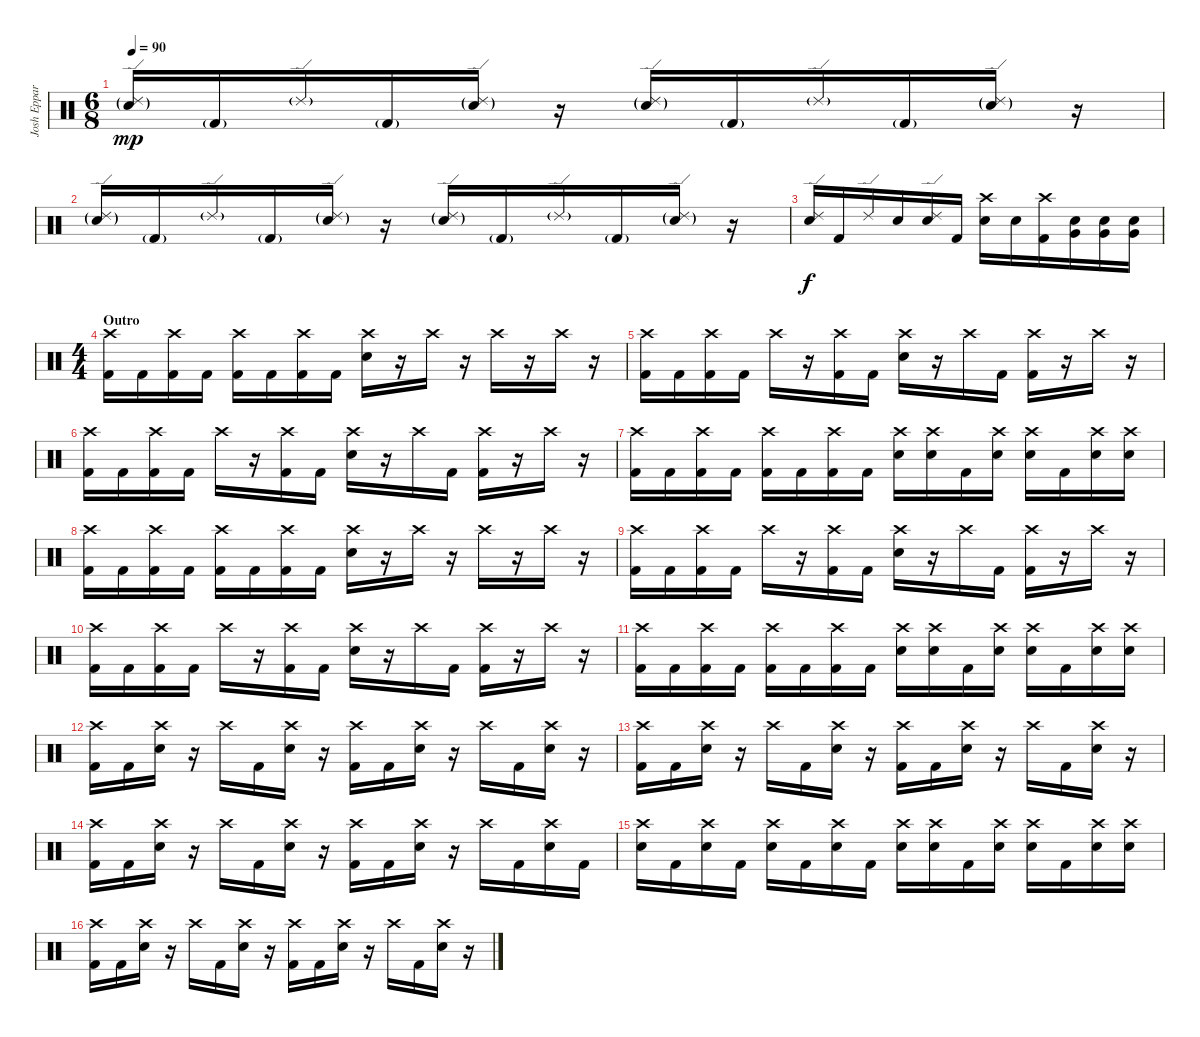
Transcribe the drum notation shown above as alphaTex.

\track ("Josh Eppard" "Josh Eppar") {instrument percussion}
\staff {score}
\articulation defaults
\ts (6 8)
\tempo 90
\clef neutral
\ks c
("Ride (edge) 2"{g} "Electric Snare (hit)"{g}).16{dy mp} "Kick (hit) 2"{g}.16 "Ride (edge) 2"{g}.16 "Kick (hit) 2"{g}.16 ("Ride (edge) 2"{g} "Electric Snare (hit)"{g}).16 r.16 ("Ride (edge) 2"{g} "Electric Snare (hit)"{g}).16 "Kick (hit) 2"{g}.16 "Ride (edge) 2"{g}.16 "Kick (hit) 2"{g}.16 ("Ride (edge) 2"{g} "Electric Snare (hit)"{g}).16 r.16 |
("Ride (edge) 2"{g} "Electric Snare (hit)"{g}).16 "Kick (hit) 2"{g}.16 "Ride (edge) 2"{g}.16 "Kick (hit) 2"{g}.16 ("Ride (edge) 2"{g} "Electric Snare (hit)"{g}).16 r.16 ("Ride (edge) 2"{g} "Electric Snare (hit)"{g}).16 "Kick (hit) 2"{g}.16 "Ride (edge) 2"{g}.16 "Kick (hit) 2"{g}.16 ("Ride (edge) 2"{g} "Electric Snare (hit)"{g}).16 r.16 |
("Ride (edge) 2" "Electric Snare (hit)").16{dy f} "Kick (hit) 2".16 "Ride (edge) 2".16 "Electric Snare (hit)".16 ("Ride (edge) 2" "Electric Snare (hit)").16 "Kick (hit) 2".16 ("Crash high (hit)" "Electric Snare (hit)").16 "Electric Snare (hit)".16 ("Crash high (hit)" "Kick (hit) 2").16 ("Very Low Tom (hit)" "Electric Snare (hit)").16 ("Very Low Tom (hit)" "Electric Snare (hit)").16 ("Very Low Tom (hit)" "Electric Snare (hit)").16 |
\ts (4 4)
\section ("" "Outro")
("Crash high (hit)" "Kick (hit) 2").16 "Kick (hit) 2".16 ("Crash high (hit)" "Kick (hit) 2").16 "Kick (hit) 2".16 ("Crash high (hit)" "Kick (hit) 2").16 "Kick (hit) 2".16 ("Crash high (hit)" "Kick (hit) 2").16 "Kick (hit) 2".16 ("Crash high (hit)" "Electric Snare (hit)").16 r.16 "Crash high (hit)".16 r.16 "Crash high (hit)".16 r.16 "Crash high (hit)".16 r.16 |
("Crash high (hit)" "Kick (hit) 2").16 "Kick (hit) 2".16 ("Crash high (hit)" "Kick (hit) 2").16 "Kick (hit) 2".16 "Crash high (hit)".16 r.16 ("Crash high (hit)" "Kick (hit) 2").16 "Kick (hit) 2".16 ("Crash high (hit)" "Electric Snare (hit)").16 r.16 "Crash high (hit)".16 "Kick (hit) 2".16 ("Crash high (hit)" "Kick (hit) 2").16 r.16 "Crash high (hit)".16 r.16 |
("Crash high (hit)" "Kick (hit) 2").16 "Kick (hit) 2".16 ("Crash high (hit)" "Kick (hit) 2").16 "Kick (hit) 2".16 "Crash high (hit)".16 r.16 ("Crash high (hit)" "Kick (hit) 2").16 "Kick (hit) 2".16 ("Crash high (hit)" "Electric Snare (hit)").16 r.16 "Crash high (hit)".16 "Kick (hit) 2".16 ("Crash high (hit)" "Kick (hit) 2").16 r.16 "Crash high (hit)".16 r.16 |
("Crash high (hit)" "Kick (hit) 2").16 "Kick (hit) 2".16 ("Crash high (hit)" "Kick (hit) 2").16 "Kick (hit) 2".16 ("Crash high (hit)" "Kick (hit) 2").16 "Kick (hit) 2".16 ("Crash high (hit)" "Kick (hit) 2").16 "Kick (hit) 2".16 ("Crash high (hit)" "Electric Snare (hit)").16 ("Crash high (hit)" "Electric Snare (hit)").16 "Kick (hit) 2".16 ("Crash high (hit)" "Electric Snare (hit)").16 ("Crash high (hit)" "Electric Snare (hit)").16 "Kick (hit) 2".16 ("Crash high (hit)" "Electric Snare (hit)").16 ("Crash high (hit)" "Electric Snare (hit)").16 |
("Crash high (hit)" "Kick (hit) 2").16 "Kick (hit) 2".16 ("Crash high (hit)" "Kick (hit) 2").16 "Kick (hit) 2".16 ("Crash high (hit)" "Kick (hit) 2").16 "Kick (hit) 2".16 ("Crash high (hit)" "Kick (hit) 2").16 "Kick (hit) 2".16 ("Crash high (hit)" "Electric Snare (hit)").16 r.16 "Crash high (hit)".16 r.16 "Crash high (hit)".16 r.16 "Crash high (hit)".16 r.16 |
("Crash high (hit)" "Kick (hit) 2").16 "Kick (hit) 2".16 ("Crash high (hit)" "Kick (hit) 2").16 "Kick (hit) 2".16 "Crash high (hit)".16 r.16 ("Crash high (hit)" "Kick (hit) 2").16 "Kick (hit) 2".16 ("Crash high (hit)" "Electric Snare (hit)").16 r.16 "Crash high (hit)".16 "Kick (hit) 2".16 ("Crash high (hit)" "Kick (hit) 2").16 r.16 "Crash high (hit)".16 r.16 |
("Crash high (hit)" "Kick (hit) 2").16 "Kick (hit) 2".16 ("Crash high (hit)" "Kick (hit) 2").16 "Kick (hit) 2".16 "Crash high (hit)".16 r.16 ("Crash high (hit)" "Kick (hit) 2").16 "Kick (hit) 2".16 ("Crash high (hit)" "Electric Snare (hit)").16 r.16 "Crash high (hit)".16 "Kick (hit) 2".16 ("Crash high (hit)" "Kick (hit) 2").16 r.16 "Crash high (hit)".16 r.16 |
("Crash high (hit)" "Kick (hit) 2").16 "Kick (hit) 2".16 ("Crash high (hit)" "Kick (hit) 2").16 "Kick (hit) 2".16 ("Crash high (hit)" "Kick (hit) 2").16 "Kick (hit) 2".16 ("Crash high (hit)" "Kick (hit) 2").16 "Kick (hit) 2".16 ("Crash high (hit)" "Electric Snare (hit)").16 ("Crash high (hit)" "Electric Snare (hit)").16 "Kick (hit) 2".16 ("Crash high (hit)" "Electric Snare (hit)").16 ("Crash high (hit)" "Electric Snare (hit)").16 "Kick (hit) 2".16 ("Crash high (hit)" "Electric Snare (hit)").16 ("Crash high (hit)" "Electric Snare (hit)").16 |
("Crash high (hit)" "Kick (hit) 2").16 "Kick (hit) 2".16 ("Crash high (hit)" "Electric Snare (hit)").16 r.16 "Crash high (hit)".16 "Kick (hit) 2".16 ("Crash high (hit)" "Electric Snare (hit)").16 r.16 ("Crash high (hit)" "Kick (hit) 2").16 "Kick (hit) 2".16 ("Crash high (hit)" "Electric Snare (hit)").16 r.16 "Crash high (hit)".16 "Kick (hit) 2".16 ("Crash high (hit)" "Electric Snare (hit)").16 r.16 |
("Crash high (hit)" "Kick (hit) 2").16 "Kick (hit) 2".16 ("Crash high (hit)" "Electric Snare (hit)").16 r.16 "Crash high (hit)".16 "Kick (hit) 2".16 ("Crash high (hit)" "Electric Snare (hit)").16 r.16 ("Crash high (hit)" "Kick (hit) 2").16 "Kick (hit) 2".16 ("Crash high (hit)" "Electric Snare (hit)").16 r.16 "Crash high (hit)".16 "Kick (hit) 2".16 ("Crash high (hit)" "Electric Snare (hit)").16 r.16 |
("Crash high (hit)" "Kick (hit) 2").16 "Kick (hit) 2".16 ("Crash high (hit)" "Electric Snare (hit)").16 r.16 "Crash high (hit)".16 "Kick (hit) 2".16 ("Crash high (hit)" "Electric Snare (hit)").16 r.16 ("Crash high (hit)" "Kick (hit) 2").16 "Kick (hit) 2".16 ("Crash high (hit)" "Electric Snare (hit)").16 r.16 "Crash high (hit)".16 "Kick (hit) 2".16 ("Crash high (hit)" "Electric Snare (hit)").16 "Kick (hit) 2".16 |
("Crash high (hit)" "Electric Snare (hit)").16 "Kick (hit) 2".16 ("Crash high (hit)" "Electric Snare (hit)").16 "Kick (hit) 2".16 ("Crash high (hit)" "Electric Snare (hit)").16 "Kick (hit) 2".16 ("Crash high (hit)" "Electric Snare (hit)").16 "Kick (hit) 2".16 ("Crash high (hit)" "Electric Snare (hit)").16 ("Crash high (hit)" "Electric Snare (hit)").16 "Kick (hit) 2".16 ("Crash high (hit)" "Electric Snare (hit)").16 ("Crash high (hit)" "Electric Snare (hit)").16 "Kick (hit) 2".16 ("Crash high (hit)" "Electric Snare (hit)").16 ("Crash high (hit)" "Electric Snare (hit)").16 |
("Crash high (hit)" "Kick (hit) 2").16 "Kick (hit) 2".16 ("Crash high (hit)" "Electric Snare (hit)").16 r.16 "Crash high (hit)".16 "Kick (hit) 2".16 ("Crash high (hit)" "Electric Snare (hit)").16 r.16 ("Crash high (hit)" "Kick (hit) 2").16 "Kick (hit) 2".16 ("Crash high (hit)" "Electric Snare (hit)").16 r.16 "Crash high (hit)".16 "Kick (hit) 2".16 ("Crash high (hit)" "Electric Snare (hit)").16 r.16
